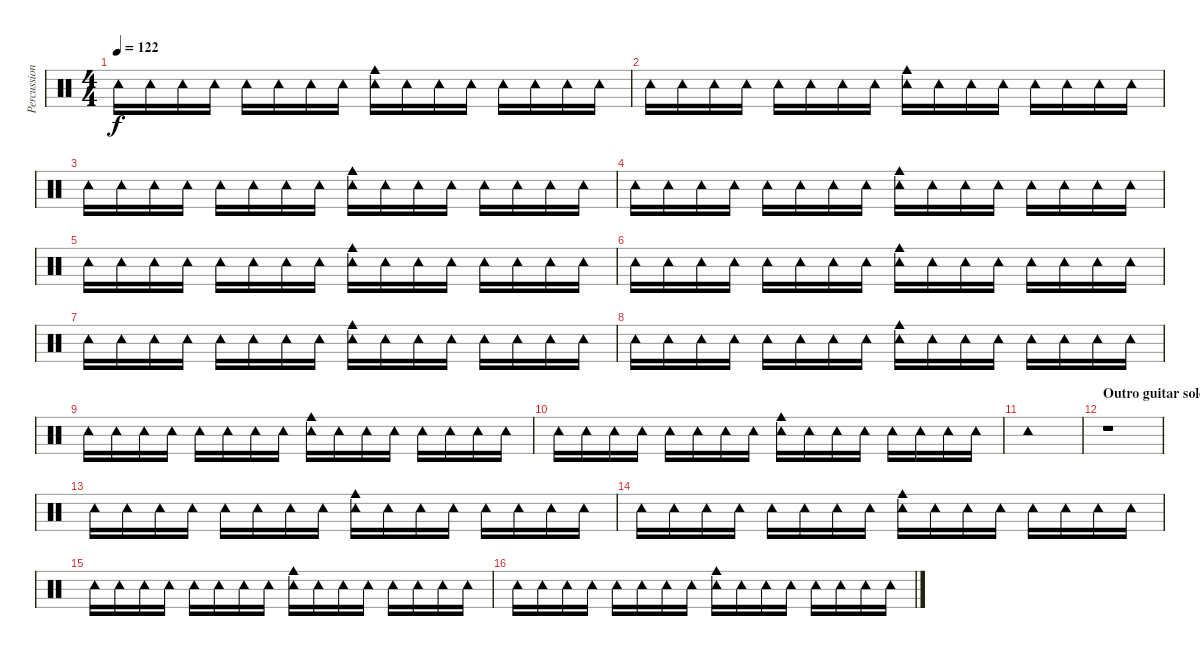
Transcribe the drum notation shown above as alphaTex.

\track ("Percussion" "Percussion") {instrument percussion}
\staff {score}
\articulation defaults
\ts (4 4)
\tempo 122
\clef neutral
\ks c "Tambourine (hit)".16{dy f} "Tambourine (hit)".16 "Tambourine (hit)".16 "Tambourine (hit)".16 "Tambourine (hit)".16 "Tambourine (hit)".16 "Tambourine (hit)".16 "Tambourine (hit)".16
("Tambourine (hit)" "Cowbell medium (hit)").16 "Tambourine (hit)".16 "Tambourine (hit)".16 "Tambourine (hit)".16 "Tambourine (hit)".16 "Tambourine (hit)".16 "Tambourine (hit)".16 "Tambourine (hit)".16 |
"Tambourine (hit)".16 "Tambourine (hit)".16 "Tambourine (hit)".16 "Tambourine (hit)".16 "Tambourine (hit)".16 "Tambourine (hit)".16 "Tambourine (hit)".16 "Tambourine (hit)".16 ("Tambourine (hit)" "Cowbell medium (hit)").16 "Tambourine (hit)".16 "Tambourine (hit)".16 "Tambourine (hit)".16 "Tambourine (hit)".16 "Tambourine (hit)".16 "Tambourine (hit)".16 "Tambourine (hit)".16 |
"Tambourine (hit)".16 "Tambourine (hit)".16 "Tambourine (hit)".16 "Tambourine (hit)".16 "Tambourine (hit)".16 "Tambourine (hit)".16 "Tambourine (hit)".16 "Tambourine (hit)".16 ("Tambourine (hit)" "Cowbell medium (hit)").16 "Tambourine (hit)".16 "Tambourine (hit)".16 "Tambourine (hit)".16 "Tambourine (hit)".16 "Tambourine (hit)".16 "Tambourine (hit)".16 "Tambourine (hit)".16 |
"Tambourine (hit)".16 "Tambourine (hit)".16 "Tambourine (hit)".16 "Tambourine (hit)".16 "Tambourine (hit)".16 "Tambourine (hit)".16 "Tambourine (hit)".16 "Tambourine (hit)".16 ("Tambourine (hit)" "Cowbell medium (hit)").16 "Tambourine (hit)".16 "Tambourine (hit)".16 "Tambourine (hit)".16 "Tambourine (hit)".16 "Tambourine (hit)".16 "Tambourine (hit)".16 "Tambourine (hit)".16 |
"Tambourine (hit)".16 "Tambourine (hit)".16 "Tambourine (hit)".16 "Tambourine (hit)".16 "Tambourine (hit)".16 "Tambourine (hit)".16 "Tambourine (hit)".16 "Tambourine (hit)".16 ("Tambourine (hit)" "Cowbell medium (hit)").16 "Tambourine (hit)".16 "Tambourine (hit)".16 "Tambourine (hit)".16 "Tambourine (hit)".16 "Tambourine (hit)".16 "Tambourine (hit)".16 "Tambourine (hit)".16 |
"Tambourine (hit)".16 "Tambourine (hit)".16 "Tambourine (hit)".16 "Tambourine (hit)".16 "Tambourine (hit)".16 "Tambourine (hit)".16 "Tambourine (hit)".16 "Tambourine (hit)".16 ("Tambourine (hit)" "Cowbell medium (hit)").16 "Tambourine (hit)".16 "Tambourine (hit)".16 "Tambourine (hit)".16 "Tambourine (hit)".16 "Tambourine (hit)".16 "Tambourine (hit)".16 "Tambourine (hit)".16 |
"Tambourine (hit)".16 "Tambourine (hit)".16 "Tambourine (hit)".16 "Tambourine (hit)".16 "Tambourine (hit)".16 "Tambourine (hit)".16 "Tambourine (hit)".16 "Tambourine (hit)".16 ("Tambourine (hit)" "Cowbell medium (hit)").16 "Tambourine (hit)".16 "Tambourine (hit)".16 "Tambourine (hit)".16 "Tambourine (hit)".16 "Tambourine (hit)".16 "Tambourine (hit)".16 "Tambourine (hit)".16 |
"Tambourine (hit)".16 "Tambourine (hit)".16 "Tambourine (hit)".16 "Tambourine (hit)".16 "Tambourine (hit)".16 "Tambourine (hit)".16 "Tambourine (hit)".16 "Tambourine (hit)".16 ("Tambourine (hit)" "Cowbell medium (hit)").16 "Tambourine (hit)".16 "Tambourine (hit)".16 "Tambourine (hit)".16 "Tambourine (hit)".16 "Tambourine (hit)".16 "Tambourine (hit)".16 "Tambourine (hit)".16 |
"Tambourine (hit)".16 "Tambourine (hit)".16 "Tambourine (hit)".16 "Tambourine (hit)".16 "Tambourine (hit)".16 "Tambourine (hit)".16 "Tambourine (hit)".16 "Tambourine (hit)".16 ("Tambourine (hit)" "Cowbell medium (hit)").16 "Tambourine (hit)".16 "Tambourine (hit)".16 "Tambourine (hit)".16 "Tambourine (hit)".16 "Tambourine (hit)".16 "Tambourine (hit)".16 "Tambourine (hit)".16 |
"Tambourine (hit)".16 "Tambourine (hit)".16 "Tambourine (hit)".16 "Tambourine (hit)".16 "Tambourine (hit)".16 "Tambourine (hit)".16 "Tambourine (hit)".16 "Tambourine (hit)".16 ("Tambourine (hit)" "Cowbell medium (hit)").16 "Tambourine (hit)".16 "Tambourine (hit)".16 "Tambourine (hit)".16 "Tambourine (hit)".16 "Tambourine (hit)".16 "Tambourine (hit)".16 "Tambourine (hit)".16 |
"Tambourine (hit)".1 |
\section ("" "Outro guitar solo")
r.1 |
"Tambourine (hit)".16 "Tambourine (hit)".16 "Tambourine (hit)".16 "Tambourine (hit)".16 "Tambourine (hit)".16 "Tambourine (hit)".16 "Tambourine (hit)".16 "Tambourine (hit)".16 ("Tambourine (hit)" "Cowbell medium (hit)").16 "Tambourine (hit)".16 "Tambourine (hit)".16 "Tambourine (hit)".16 "Tambourine (hit)".16 "Tambourine (hit)".16 "Tambourine (hit)".16 "Tambourine (hit)".16 |
"Tambourine (hit)".16 "Tambourine (hit)".16 "Tambourine (hit)".16 "Tambourine (hit)".16 "Tambourine (hit)".16 "Tambourine (hit)".16 "Tambourine (hit)".16 "Tambourine (hit)".16 ("Tambourine (hit)" "Cowbell medium (hit)").16 "Tambourine (hit)".16 "Tambourine (hit)".16 "Tambourine (hit)".16 "Tambourine (hit)".16 "Tambourine (hit)".16 "Tambourine (hit)".16 "Tambourine (hit)".16 |
"Tambourine (hit)".16 "Tambourine (hit)".16 "Tambourine (hit)".16 "Tambourine (hit)".16 "Tambourine (hit)".16 "Tambourine (hit)".16 "Tambourine (hit)".16 "Tambourine (hit)".16 ("Tambourine (hit)" "Cowbell medium (hit)").16 "Tambourine (hit)".16 "Tambourine (hit)".16 "Tambourine (hit)".16 "Tambourine (hit)".16 "Tambourine (hit)".16 "Tambourine (hit)".16 "Tambourine (hit)".16 |
"Tambourine (hit)".16 "Tambourine (hit)".16 "Tambourine (hit)".16 "Tambourine (hit)".16 "Tambourine (hit)".16 "Tambourine (hit)".16 "Tambourine (hit)".16 "Tambourine (hit)".16 ("Tambourine (hit)" "Cowbell medium (hit)").16 "Tambourine (hit)".16 "Tambourine (hit)".16 "Tambourine (hit)".16 "Tambourine (hit)".16 "Tambourine (hit)".16 "Tambourine (hit)".16 "Tambourine (hit)".16
